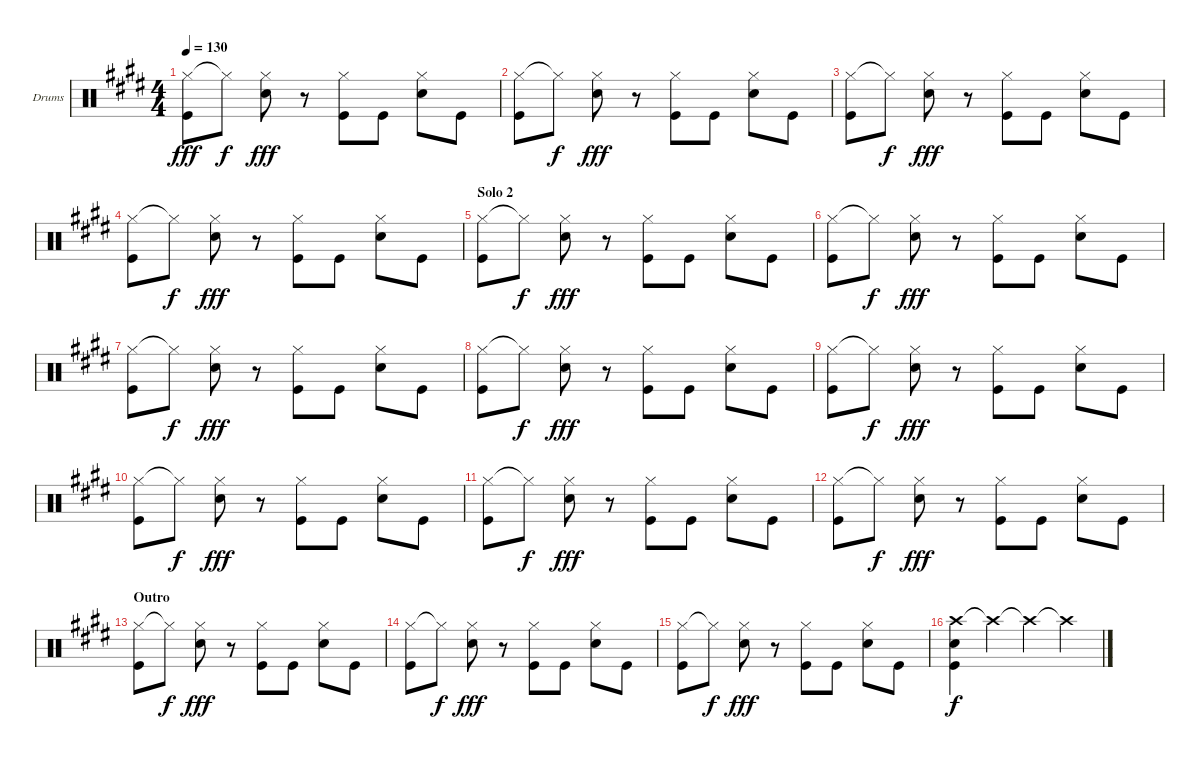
\defaultSystemsLayout 4
\bracketExtendMode groupsimilarinstruments
\firstSystemTrackNameOrientation horizontal
\otherSystemsTrackNameOrientation horizontal
\chordDiagramsInScore
\track ("Drums" "Drums") {instrument percussion}
\staff {score}
\articulation defaults
\ts (4 4)
\tempo 130
\clef neutral
\scale
0.25
\ks e
("Hi-Hat (closed)" "Kick (hit)").8{dy fff} "Hi-Hat (closed)"{t}.8{dy f} ("Hi-Hat (closed)" "Snare (hit) 2").8{dy fff} r.8 ("Hi-Hat (closed)" "Kick (hit)").8 "Kick (hit)".8 ("Hi-Hat (closed)" "Snare (hit) 2").8 "Kick (hit)".8 |
\scale
0.25 ("Hi-Hat (closed)" "Kick (hit)").8 "Hi-Hat (closed)"{t}.8{dy f} ("Hi-Hat (closed)" "Snare (hit) 2").8{dy fff} r.8 ("Hi-Hat (closed)" "Kick (hit)").8 "Kick (hit)".8 ("Hi-Hat (closed)" "Snare (hit) 2").8 "Kick (hit)".8 |
\scale
0.25 ("Hi-Hat (closed)" "Kick (hit)").8 "Hi-Hat (closed)"{t}.8{dy f} ("Hi-Hat (closed)" "Snare (hit) 2").8{dy fff} r.8 ("Hi-Hat (closed)" "Kick (hit)").8 "Kick (hit)".8 ("Hi-Hat (closed)" "Snare (hit) 2").8 "Kick (hit)".8 |
\scale
0.25 ("Hi-Hat (closed)" "Kick (hit)").8 "Hi-Hat (closed)"{t}.8{dy f} ("Hi-Hat (closed)" "Snare (hit) 2").8{dy fff} r.8 ("Hi-Hat (closed)" "Kick (hit)").8 "Kick (hit)".8 ("Hi-Hat (closed)" "Snare (hit) 2").8 "Kick (hit)".8 |
\section ("" "Solo 2")
\scale
0.25 ("Hi-Hat (closed)" "Kick (hit)").8 "Hi-Hat (closed)"{t}.8{dy f} ("Hi-Hat (closed)" "Snare (hit) 2").8{dy fff} r.8 ("Hi-Hat (closed)" "Kick (hit)").8 "Kick (hit)".8 ("Hi-Hat (closed)" "Snare (hit) 2").8 "Kick (hit)".8 |
\scale
0.25 ("Hi-Hat (closed)" "Kick (hit)").8 "Hi-Hat (closed)"{t}.8{dy f} ("Hi-Hat (closed)" "Snare (hit) 2").8{dy fff} r.8 ("Hi-Hat (closed)" "Kick (hit)").8 "Kick (hit)".8 ("Hi-Hat (closed)" "Snare (hit) 2").8 "Kick (hit)".8 |
\scale
0.25 ("Hi-Hat (closed)" "Kick (hit)").8 "Hi-Hat (closed)"{t}.8{dy f} ("Hi-Hat (closed)" "Snare (hit) 2").8{dy fff} r.8 ("Hi-Hat (closed)" "Kick (hit)").8 "Kick (hit)".8 ("Hi-Hat (closed)" "Snare (hit) 2").8 "Kick (hit)".8 |
\scale
0.25 ("Hi-Hat (closed)" "Kick (hit)").8 "Hi-Hat (closed)"{t}.8{dy f} ("Hi-Hat (closed)" "Snare (hit) 2").8{dy fff} r.8 ("Hi-Hat (closed)" "Kick (hit)").8 "Kick (hit)".8 ("Hi-Hat (closed)" "Snare (hit) 2").8 "Kick (hit)".8 |
\scale
0.25 ("Hi-Hat (closed)" "Kick (hit)").8 "Hi-Hat (closed)"{t}.8{dy f} ("Hi-Hat (closed)" "Snare (hit) 2").8{dy fff} r.8 ("Hi-Hat (closed)" "Kick (hit)").8 "Kick (hit)".8 ("Hi-Hat (closed)" "Snare (hit) 2").8 "Kick (hit)".8 |
\scale
0.25 ("Hi-Hat (closed)" "Kick (hit)").8 "Hi-Hat (closed)"{t}.8{dy f} ("Hi-Hat (closed)" "Snare (hit) 2").8{dy fff} r.8 ("Hi-Hat (closed)" "Kick (hit)").8 "Kick (hit)".8 ("Hi-Hat (closed)" "Snare (hit) 2").8 "Kick (hit)".8 |
\scale
0.25 ("Hi-Hat (closed)" "Kick (hit)").8 "Hi-Hat (closed)"{t}.8{dy f} ("Hi-Hat (closed)" "Snare (hit) 2").8{dy fff} r.8 ("Hi-Hat (closed)" "Kick (hit)").8 "Kick (hit)".8 ("Hi-Hat (closed)" "Snare (hit) 2").8 "Kick (hit)".8 |
\scale
0.25 ("Hi-Hat (closed)" "Kick (hit)").8 "Hi-Hat (closed)"{t}.8{dy f} ("Hi-Hat (closed)" "Snare (hit) 2").8{dy fff} r.8 ("Hi-Hat (closed)" "Kick (hit)").8 "Kick (hit)".8 ("Hi-Hat (closed)" "Snare (hit) 2").8 "Kick (hit)".8 |
\section ("" "Outro")
\scale
0.266667 ("Hi-Hat (closed)" "Kick (hit)").8 "Hi-Hat (closed)"{t}.8{dy f} ("Hi-Hat (closed)" "Snare (hit) 2").8{dy fff} r.8 ("Hi-Hat (closed)" "Kick (hit)").8 "Kick (hit)".8 ("Hi-Hat (closed)" "Snare (hit) 2").8 "Kick (hit)".8 |
\scale
0.266667 ("Hi-Hat (closed)" "Kick (hit)").8 "Hi-Hat (closed)"{t}.8{dy f} ("Hi-Hat (closed)" "Snare (hit) 2").8{dy fff} r.8 ("Hi-Hat (closed)" "Kick (hit)").8 "Kick (hit)".8 ("Hi-Hat (closed)" "Snare (hit) 2").8 "Kick (hit)".8 |
\scale
0.266667 ("Hi-Hat (closed)" "Kick (hit)").8 "Hi-Hat (closed)"{t}.8{dy f} ("Hi-Hat (closed)" "Snare (hit) 2").8{dy fff} r.8 ("Hi-Hat (closed)" "Kick (hit)").8 "Kick (hit)".8 ("Hi-Hat (closed)" "Snare (hit) 2").8 "Kick (hit)".8 |
\scale
0.2 ("Crash high (hit)" "Snare (hit) 2" "Kick (hit)").4{dy f} "Crash high (hit)"{t}.4 "Crash high (hit)"{t}.4 "Crash high (hit)"{t}.4
